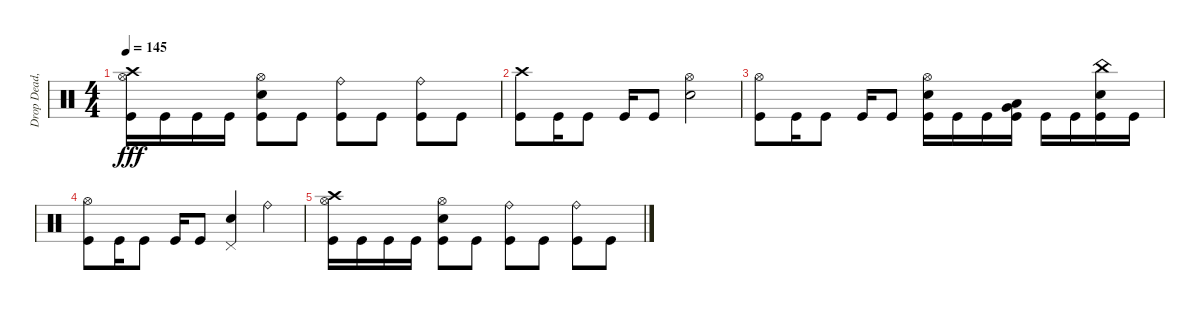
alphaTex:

\track ("Drop Dead, Johnny" "Drop Dead,") {instrument percussion}
\staff {score}
\articulation defaults
\ts (4 4)
\tempo 145
\clef neutral
\ks c
("Crash high (hit)" "Hi-Hat (open)" "Kick (hit)").16{dy fff} "Kick (hit)".16 "Kick (hit)".16 "Kick (hit)".16 ("Hi-Hat (open)" "Electric Snare (hit)" "Kick (hit)").8 "Kick (hit)".8 ("Ride (bell)" "Kick (hit)").8 "Kick (hit)".8 ("Ride (bell)" "Kick (hit)").8 "Kick (hit)".8 |
("Crash high (hit)" "Kick (hit)").8 "Kick (hit)".16 "Kick (hit)".8 "Kick (hit)".16 "Kick (hit)".8 ("Hi-Hat (open)" "Electric Snare (hit)").2 |
("Hi-Hat (open)" "Kick (hit)").8 "Kick (hit)".16 "Kick (hit)".8 "Kick (hit)".16 "Kick (hit)".8 ("Hi-Hat (open)" "Electric Snare (hit)" "Kick (hit)").16 "Kick (hit)".16 "Kick (hit)".16 ("Very Low Tom (hit)" "Low Floor Tom (hit)" "Kick (hit)").16 "Kick (hit)".16 "Kick (hit)".16 ("China (hit)" "Electric Snare (hit)" "Kick (hit)").16 "Kick (hit)".16 |
("Hi-Hat (open)" "Kick (hit)").8 "Kick (hit)".16 "Kick (hit)".8 "Kick (hit)".16 "Kick (hit)".8 ("Pedal Hi-Hat (hit)" "Electric Snare (hit)").4 "Ride (bell)".4 |
("Crash high (hit)" "Hi-Hat (open)" "Kick (hit)").16 "Kick (hit)".16 "Kick (hit)".16 "Kick (hit)".16 ("Hi-Hat (open)" "Electric Snare (hit)" "Kick (hit)").8 "Kick (hit)".8 ("Ride (bell)" "Kick (hit)").8 "Kick (hit)".8 ("Ride (bell)" "Kick (hit)").8 "Kick (hit)".8
